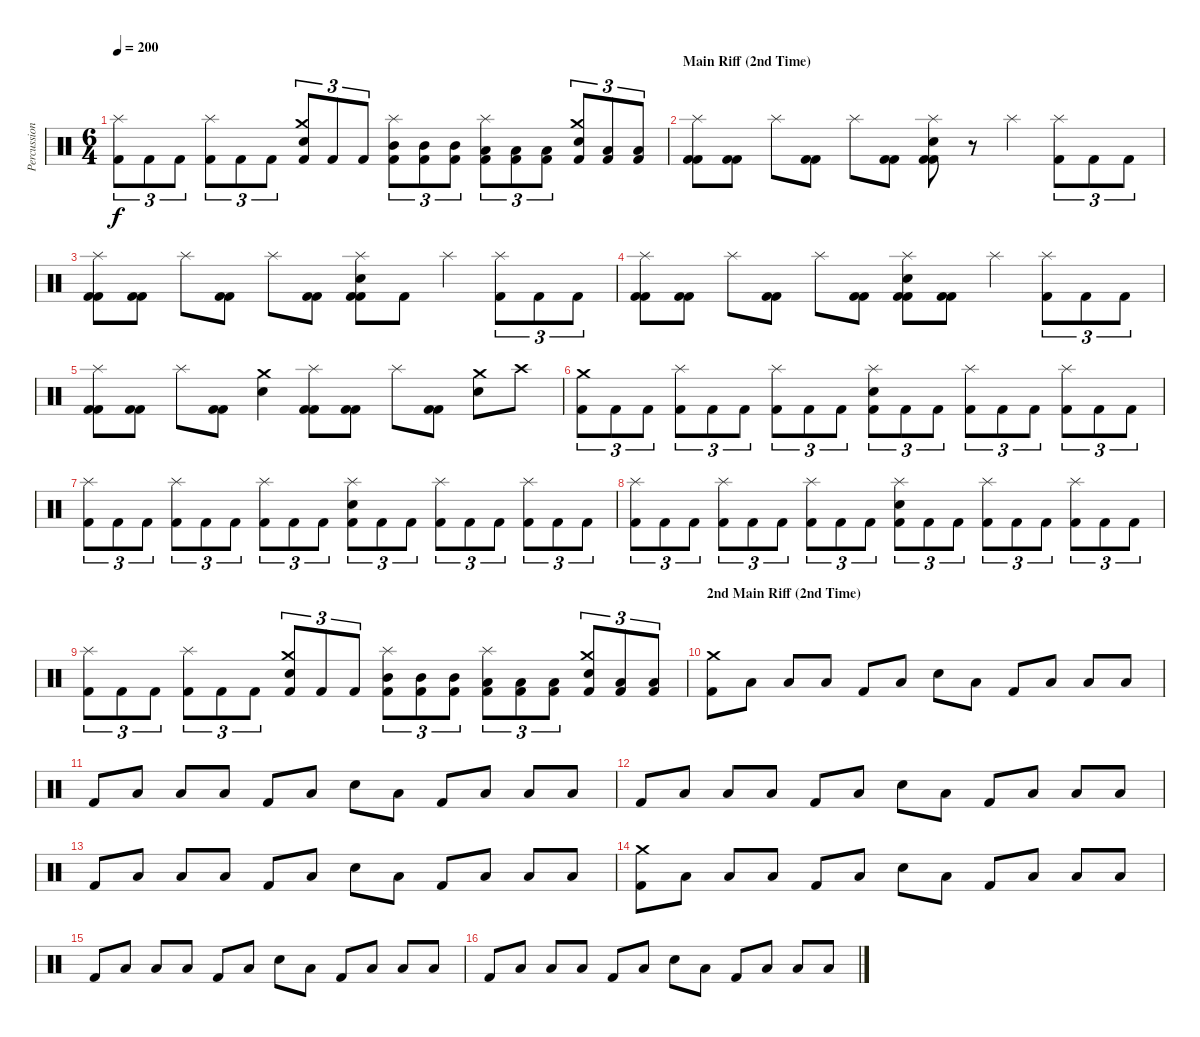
\track ("Percussion" "Percussion") {instrument percussion}
\staff {score}
\articulation defaults
\ts (6 4)
\tempo 200
\clef neutral
\ks c
("Splash (hit)" "Kick (hit) 2").8{tu (3 2) dy f} "Kick (hit) 2".8{tu (3 2)} "Kick (hit) 2".8{tu (3 2)} ("Splash (hit)" "Kick (hit) 2").8{tu (3 2)} "Kick (hit) 2".8{tu (3 2)} "Kick (hit) 2".8{tu (3 2)} ("Crash medium (hit)" "Electric Snare (hit)" "Kick (hit) 2").8{tu (3 2)} "Kick (hit) 2".8{tu (3 2)} "Kick (hit) 2".8{tu (3 2)} ("Splash (hit)" "Mid Tom (hit)" "Kick (hit) 2").8{tu (3 2)} ("Mid Tom (hit)" "Kick (hit) 2").8{tu (3 2)} ("Mid Tom (hit)" "Kick (hit) 2").8{tu (3 2)} ("Splash (hit)" "Low Tom (hit)" "Kick (hit) 2").8{tu (3 2)} ("Low Tom (hit)" "Kick (hit) 2").8{tu (3 2)} ("Low Tom (hit)" "Kick (hit) 2").8{tu (3 2)} ("Crash medium (hit)" "Electric Snare (hit)" "Kick (hit) 2").8{tu (3 2)} ("Low Floor Tom (hit)" "Kick (hit) 2").8{tu (3 2)} ("Low Floor Tom (hit)" "Kick (hit) 2").8{tu (3 2)} |
\section ("" "Main Riff (2nd Time)")
("Splash (hit)" "Kick (hit) 2" "Kick (hit) 2").8 ("Kick (hit) 2" "Kick (hit) 2").8 "Splash (hit)".8 ("Kick (hit) 2" "Kick (hit) 2").8 "Splash (hit)".8 ("Kick (hit) 2" "Kick (hit) 2").8 ("Splash (hit)" "Electric Snare (hit)" "Kick (hit) 2" "Kick (hit) 2").8 r.8 "Splash (hit)".4 ("Splash (hit)" "Kick (hit) 2").8{tu (3 2)} "Kick (hit) 2".8{tu (3 2)} "Kick (hit) 2".8{tu (3 2)} |
("Splash (hit)" "Kick (hit) 2" "Kick (hit) 2").8 ("Kick (hit) 2" "Kick (hit) 2").8 "Splash (hit)".8 ("Kick (hit) 2" "Kick (hit) 2").8 "Splash (hit)".8 ("Kick (hit) 2" "Kick (hit) 2").8 ("Splash (hit)" "Electric Snare (hit)" "Kick (hit) 2" "Kick (hit) 2").8 "Kick (hit) 2".8 "Splash (hit)".4 ("Splash (hit)" "Kick (hit) 2").8{tu (3 2)} "Kick (hit) 2".8{tu (3 2)} "Kick (hit) 2".8{tu (3 2)} |
("Splash (hit)" "Kick (hit) 2" "Kick (hit) 2").8 ("Kick (hit) 2" "Kick (hit) 2").8 "Splash (hit)".8 ("Kick (hit) 2" "Kick (hit) 2").8 "Splash (hit)".8 ("Kick (hit) 2" "Kick (hit) 2").8 ("Splash (hit)" "Electric Snare (hit)" "Kick (hit) 2" "Kick (hit) 2").8 ("Kick (hit) 2" "Kick (hit) 2").8 "Splash (hit)".4 ("Splash (hit)" "Kick (hit) 2").8{tu (3 2)} "Kick (hit) 2".8{tu (3 2)} "Kick (hit) 2".8{tu (3 2)} |
("Splash (hit)" "Kick (hit) 2" "Kick (hit) 2").8 ("Kick (hit) 2" "Kick (hit) 2").8 "Splash (hit)".8 ("Kick (hit) 2" "Kick (hit) 2").8 ("Crash medium (hit)" "Electric Snare (hit)").4 ("Splash (hit)" "Kick (hit) 2" "Kick (hit) 2").8 ("Kick (hit) 2" "Kick (hit) 2").8 "Splash (hit)".8 ("Kick (hit) 2" "Kick (hit) 2").8 ("Crash medium (hit)" "Electric Snare (hit)").8 "Crash high (hit)".8 |
("Crash medium (hit)" "Kick (hit) 2").8{tu (3 2)} "Kick (hit) 2".8{tu (3 2)} "Kick (hit) 2".8{tu (3 2)} ("Splash (hit)" "Kick (hit) 2").8{tu (3 2)} "Kick (hit) 2".8{tu (3 2)} "Kick (hit) 2".8{tu (3 2)} ("Splash (hit)" "Kick (hit) 2").8{tu (3 2)} "Kick (hit) 2".8{tu (3 2)} "Kick (hit) 2".8{tu (3 2)} ("Splash (hit)" "Electric Snare (hit)" "Kick (hit) 2").8{tu (3 2)} "Kick (hit) 2".8{tu (3 2)} "Kick (hit) 2".8{tu (3 2)} ("Splash (hit)" "Kick (hit) 2").8{tu (3 2)} "Kick (hit) 2".8{tu (3 2)} "Kick (hit) 2".8{tu (3 2)} ("Splash (hit)" "Kick (hit) 2").8{tu (3 2)} "Kick (hit) 2".8{tu (3 2)} "Kick (hit) 2".8{tu (3 2)} |
("Splash (hit)" "Kick (hit) 2").8{tu (3 2)} "Kick (hit) 2".8{tu (3 2)} "Kick (hit) 2".8{tu (3 2)} ("Splash (hit)" "Kick (hit) 2").8{tu (3 2)} "Kick (hit) 2".8{tu (3 2)} "Kick (hit) 2".8{tu (3 2)} ("Splash (hit)" "Kick (hit) 2").8{tu (3 2)} "Kick (hit) 2".8{tu (3 2)} "Kick (hit) 2".8{tu (3 2)} ("Splash (hit)" "Electric Snare (hit)" "Kick (hit) 2").8{tu (3 2)} "Kick (hit) 2".8{tu (3 2)} "Kick (hit) 2".8{tu (3 2)} ("Splash (hit)" "Kick (hit) 2").8{tu (3 2)} "Kick (hit) 2".8{tu (3 2)} "Kick (hit) 2".8{tu (3 2)} ("Splash (hit)" "Kick (hit) 2").8{tu (3 2)} "Kick (hit) 2".8{tu (3 2)} "Kick (hit) 2".8{tu (3 2)} |
("Splash (hit)" "Kick (hit) 2").8{tu (3 2)} "Kick (hit) 2".8{tu (3 2)} "Kick (hit) 2".8{tu (3 2)} ("Splash (hit)" "Kick (hit) 2").8{tu (3 2)} "Kick (hit) 2".8{tu (3 2)} "Kick (hit) 2".8{tu (3 2)} ("Splash (hit)" "Kick (hit) 2").8{tu (3 2)} "Kick (hit) 2".8{tu (3 2)} "Kick (hit) 2".8{tu (3 2)} ("Splash (hit)" "Electric Snare (hit)" "Kick (hit) 2").8{tu (3 2)} "Kick (hit) 2".8{tu (3 2)} "Kick (hit) 2".8{tu (3 2)} ("Splash (hit)" "Kick (hit) 2").8{tu (3 2)} "Kick (hit) 2".8{tu (3 2)} "Kick (hit) 2".8{tu (3 2)} ("Splash (hit)" "Kick (hit) 2").8{tu (3 2)} "Kick (hit) 2".8{tu (3 2)} "Kick (hit) 2".8{tu (3 2)} |
("Splash (hit)" "Kick (hit) 2").8{tu (3 2)} "Kick (hit) 2".8{tu (3 2)} "Kick (hit) 2".8{tu (3 2)} ("Splash (hit)" "Kick (hit) 2").8{tu (3 2)} "Kick (hit) 2".8{tu (3 2)} "Kick (hit) 2".8{tu (3 2)} ("Crash medium (hit)" "Electric Snare (hit)" "Kick (hit) 2").8{tu (3 2)} "Kick (hit) 2".8{tu (3 2)} "Kick (hit) 2".8{tu (3 2)} ("Splash (hit)" "Mid Tom (hit)" "Kick (hit) 2").8{tu (3 2)} ("Mid Tom (hit)" "Kick (hit) 2").8{tu (3 2)} ("Mid Tom (hit)" "Kick (hit) 2").8{tu (3 2)} ("Splash (hit)" "Low Tom (hit)" "Kick (hit) 2").8{tu (3 2)} ("Low Tom (hit)" "Kick (hit) 2").8{tu (3 2)} ("Low Tom (hit)" "Kick (hit) 2").8{tu (3 2)} ("Crash medium (hit)" "Electric Snare (hit)" "Kick (hit) 2").8{tu (3 2)} ("Low Floor Tom (hit)" "Kick (hit) 2").8{tu (3 2)} ("Low Floor Tom (hit)" "Kick (hit) 2").8{tu (3 2)} |
\section ("" "2nd Main Riff (2nd Time)")
("Crash medium (hit)" "Kick (hit) 2").8 "Low Tom (hit)".8 "Low Floor Tom (hit)".8 "Low Floor Tom (hit)".8 "Kick (hit) 2".8 "Low Tom (hit)".8 "Electric Snare (hit)".8 "Low Floor Tom (hit)".8 "Kick (hit) 2".8 "Low Tom (hit)".8 "Low Floor Tom (hit)".8 "Low Floor Tom (hit)".8 |
"Kick (hit) 2".8 "Low Tom (hit)".8 "Low Floor Tom (hit)".8 "Low Floor Tom (hit)".8 "Kick (hit) 2".8 "Low Tom (hit)".8 "Electric Snare (hit)".8 "Low Floor Tom (hit)".8 "Kick (hit) 2".8 "Low Tom (hit)".8 "Low Floor Tom (hit)".8 "Low Floor Tom (hit)".8 |
"Kick (hit) 2".8 "Low Tom (hit)".8 "Low Floor Tom (hit)".8 "Low Floor Tom (hit)".8 "Kick (hit) 2".8 "Low Tom (hit)".8 "Electric Snare (hit)".8 "Low Floor Tom (hit)".8 "Kick (hit) 2".8 "Low Tom (hit)".8 "Low Floor Tom (hit)".8 "Low Floor Tom (hit)".8 |
"Kick (hit) 2".8 "Low Tom (hit)".8 "Low Floor Tom (hit)".8 "Low Floor Tom (hit)".8 "Kick (hit) 2".8 "Low Tom (hit)".8 "Electric Snare (hit)".8 "Low Floor Tom (hit)".8 "Kick (hit) 2".8 "Low Tom (hit)".8 "Low Floor Tom (hit)".8 "Low Floor Tom (hit)".8 |
("Crash medium (hit)" "Kick (hit) 2").8 "Low Tom (hit)".8 "Low Floor Tom (hit)".8 "Low Floor Tom (hit)".8 "Kick (hit) 2".8 "Low Tom (hit)".8 "Electric Snare (hit)".8 "Low Floor Tom (hit)".8 "Kick (hit) 2".8 "Low Tom (hit)".8 "Low Floor Tom (hit)".8 "Low Floor Tom (hit)".8 |
"Kick (hit) 2".8 "Low Tom (hit)".8 "Low Floor Tom (hit)".8 "Low Floor Tom (hit)".8 "Kick (hit) 2".8 "Low Tom (hit)".8 "Electric Snare (hit)".8 "Low Floor Tom (hit)".8 "Kick (hit) 2".8 "Low Tom (hit)".8 "Low Floor Tom (hit)".8 "Low Floor Tom (hit)".8 |
"Kick (hit) 2".8 "Low Tom (hit)".8 "Low Floor Tom (hit)".8 "Low Floor Tom (hit)".8 "Kick (hit) 2".8 "Low Tom (hit)".8 "Electric Snare (hit)".8 "Low Floor Tom (hit)".8 "Kick (hit) 2".8 "Low Tom (hit)".8 "Low Floor Tom (hit)".8 "Low Floor Tom (hit)".8
